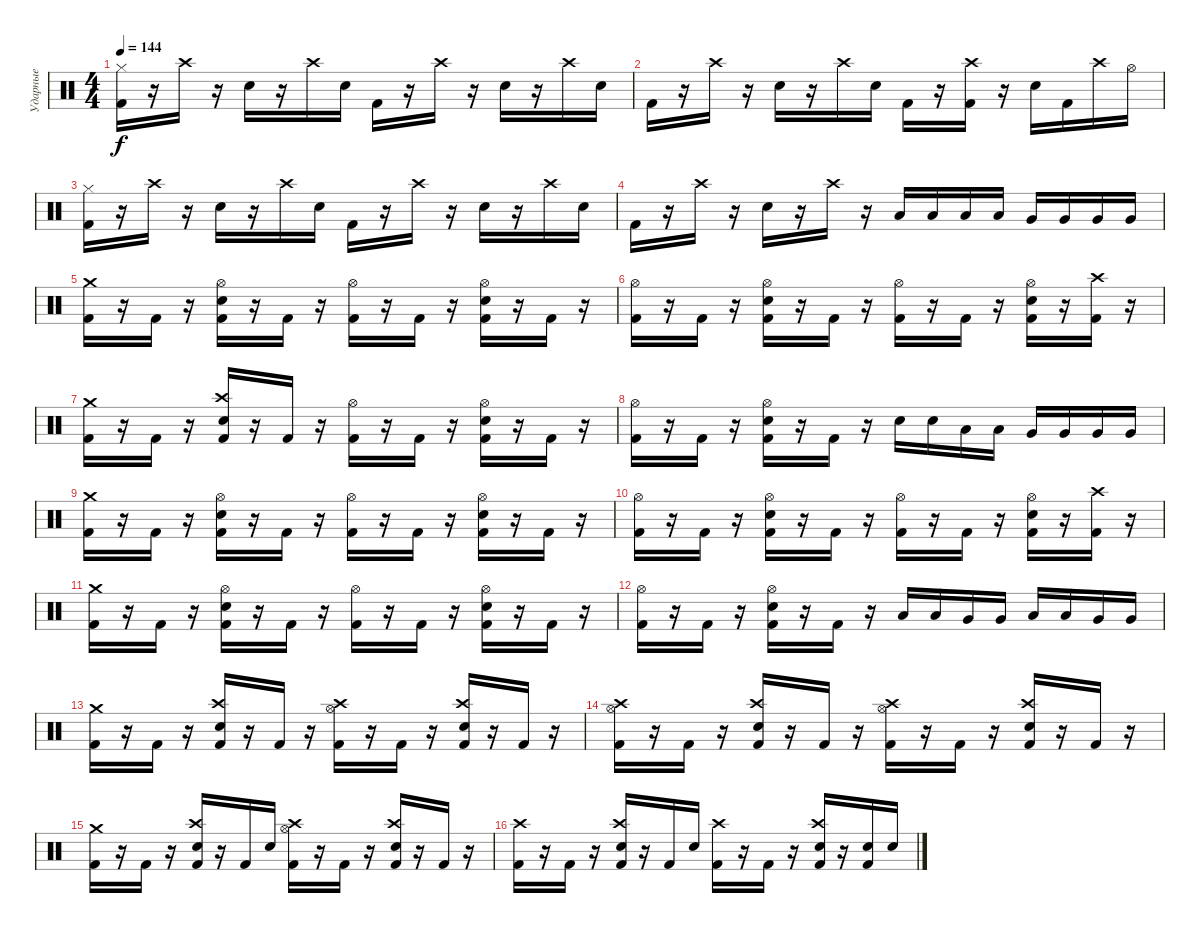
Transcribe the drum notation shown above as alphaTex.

\track ("Ударные" "Ударные") {instrument percussion}
\staff {score}
\articulation defaults
\ts (4 4)
\tempo 144
\clef neutral
\ks c
("Hi-Hat (closed)" "Kick (hit) 2").16{dy f} r.16 "Crash high (hit)".16 r.16 "Electric Snare (hit)".16 r.16 "Crash high (hit)".16 "Electric Snare (hit)".16 "Kick (hit) 2".16 r.16 "Crash high (hit)".16 r.16 "Electric Snare (hit)".16 r.16 "Crash high (hit)".16 "Electric Snare (hit)".16 |
"Kick (hit) 2".16 r.16 "Crash high (hit)".16 r.16 "Electric Snare (hit)".16 r.16 "Crash high (hit)".16 "Electric Snare (hit)".16 "Kick (hit) 2".16 r.16 ("Crash high (hit)" "Kick (hit) 2").16 r.16 "Electric Snare (hit)".16 "Kick (hit) 2".16 "Crash high (hit)".16 "Hi-Hat (open)".16 |
("Hi-Hat (closed)" "Kick (hit) 2").16 r.16 "Crash high (hit)".16 r.16 "Electric Snare (hit)".16 r.16 "Crash high (hit)".16 "Electric Snare (hit)".16 "Kick (hit) 2".16 r.16 "Crash high (hit)".16 r.16 "Electric Snare (hit)".16 r.16 "Crash high (hit)".16 "Electric Snare (hit)".16 |
"Kick (hit) 2".16 r.16 "Crash high (hit)".16 r.16 "Electric Snare (hit)".16 r.16 "Crash high (hit)".16 r.16 "Low Tom (hit)".16 "Low Tom (hit)".16 "Low Tom (hit)".16 "Low Tom (hit)".16 "Very Low Tom (hit)".16 "Very Low Tom (hit)".16 "Very Low Tom (hit)".16 "Very Low Tom (hit)".16 |
("Crash medium (hit)" "Kick (hit) 2").16 r.16 "Kick (hit) 2".16 r.16 ("Hi-Hat (open)" "Electric Snare (hit)" "Kick (hit) 2").16 r.16 "Kick (hit) 2".16 r.16 ("Hi-Hat (open)" "Kick (hit) 2").16 r.16 "Kick (hit) 2".16 r.16 ("Hi-Hat (open)" "Electric Snare (hit)" "Kick (hit) 2").16 r.16 "Kick (hit) 2".16 r.16 |
("Hi-Hat (open)" "Kick (hit) 2").16 r.16 "Kick (hit) 2".16 r.16 ("Hi-Hat (open)" "Electric Snare (hit)" "Kick (hit) 2").16 r.16 "Kick (hit) 2".16 r.16 ("Hi-Hat (open)" "Kick (hit) 2").16 r.16 "Kick (hit) 2".16 r.16 ("Hi-Hat (open)" "Electric Snare (hit)" "Kick (hit) 2").16 r.16 ("Crash high (hit)" "Kick (hit) 2").16 r.16 |
("Crash medium (hit)" "Kick (hit) 2").16 r.16 "Kick (hit) 2".16 r.16 ("Crash high (hit)" "Electric Snare (hit)" "Kick (hit) 2").16 r.16 "Kick (hit) 2".16 r.16 ("Hi-Hat (open)" "Kick (hit) 2").16 r.16 "Kick (hit) 2".16 r.16 ("Hi-Hat (open)" "Electric Snare (hit)" "Kick (hit) 2").16 r.16 "Kick (hit) 2".16 r.16 |
("Hi-Hat (open)" "Kick (hit) 2").16 r.16 "Kick (hit) 2".16 r.16 ("Hi-Hat (open)" "Electric Snare (hit)" "Kick (hit) 2").16 r.16 "Kick (hit) 2".16 r.16 "Electric Snare (hit)".16 "Electric Snare (hit)".16 "Low Tom (hit)".16 "Low Tom (hit)".16 "Very Low Tom (hit)".16 "Very Low Tom (hit)".16 "Very Low Tom (hit)".16 "Very Low Tom (hit)".16 |
("Crash medium (hit)" "Kick (hit) 2").16 r.16 "Kick (hit) 2".16 r.16 ("Hi-Hat (open)" "Electric Snare (hit)" "Kick (hit) 2").16 r.16 "Kick (hit) 2".16 r.16 ("Hi-Hat (open)" "Kick (hit) 2").16 r.16 "Kick (hit) 2".16 r.16 ("Hi-Hat (open)" "Electric Snare (hit)" "Kick (hit) 2").16 r.16 "Kick (hit) 2".16 r.16 |
("Hi-Hat (open)" "Kick (hit) 2").16 r.16 "Kick (hit) 2".16 r.16 ("Hi-Hat (open)" "Electric Snare (hit)" "Kick (hit) 2").16 r.16 "Kick (hit) 2".16 r.16 ("Hi-Hat (open)" "Kick (hit) 2").16 r.16 "Kick (hit) 2".16 r.16 ("Hi-Hat (open)" "Electric Snare (hit)" "Kick (hit) 2").16 r.16 ("Crash high (hit)" "Kick (hit) 2").16 r.16 |
("Crash medium (hit)" "Kick (hit) 2").16 r.16 "Kick (hit) 2".16 r.16 ("Hi-Hat (open)" "Electric Snare (hit)" "Kick (hit) 2").16 r.16 "Kick (hit) 2".16 r.16 ("Hi-Hat (open)" "Kick (hit) 2").16 r.16 "Kick (hit) 2".16 r.16 ("Hi-Hat (open)" "Electric Snare (hit)" "Kick (hit) 2").16 r.16 "Kick (hit) 2".16 r.16 |
("Hi-Hat (open)" "Kick (hit) 2").16 r.16 "Kick (hit) 2".16 r.16 ("Hi-Hat (open)" "Electric Snare (hit)" "Kick (hit) 2").16 r.16 "Kick (hit) 2".16 r.16 "Low Tom (hit)".16 "Low Tom (hit)".16 "Very Low Tom (hit)".16 "Very Low Tom (hit)".16 "Low Tom (hit)".16 "Low Tom (hit)".16 "Very Low Tom (hit)".16 "Very Low Tom (hit)".16 |
("Crash medium (hit)" "Kick (hit) 2").16 r.16 "Kick (hit) 2".16 r.16 ("Crash high (hit)" "Electric Snare (hit)" "Kick (hit) 2").16 r.16 "Kick (hit) 2".16 r.16 ("Crash high (hit)" "Hi-Hat (open)" "Kick (hit) 2").16 r.16 "Kick (hit) 2".16 r.16 ("Crash high (hit)" "Electric Snare (hit)" "Kick (hit) 2").16 r.16 "Kick (hit) 2".16 r.16 |
("Crash high (hit)" "Hi-Hat (open)" "Kick (hit) 2").16 r.16 "Kick (hit) 2".16 r.16 ("Crash high (hit)" "Electric Snare (hit)" "Kick (hit) 2").16 r.16 "Kick (hit) 2".16 r.16 ("Crash high (hit)" "Hi-Hat (open)" "Kick (hit) 2").16 r.16 "Kick (hit) 2".16 r.16 ("Crash high (hit)" "Electric Snare (hit)" "Kick (hit) 2").16 r.16 "Kick (hit) 2".16 r.16 |
("Crash medium (hit)" "Kick (hit) 2").16 r.16 "Kick (hit) 2".16 r.16 ("Crash high (hit)" "Electric Snare (hit)" "Kick (hit) 2").16 r.16 "Kick (hit) 2".16 "Electric Snare (hit)".16 ("Crash high (hit)" "Hi-Hat (open)" "Kick (hit) 2").16 r.16 "Kick (hit) 2".16 r.16 ("Crash high (hit)" "Electric Snare (hit)" "Kick (hit) 2").16 r.16 "Kick (hit) 2".16 r.16 |
("Crash high (hit)" "Kick (hit) 2").16 r.16 "Kick (hit) 2".16 r.16 ("Crash high (hit)" "Electric Snare (hit)" "Kick (hit) 2").16 r.16 "Kick (hit) 2".16 "Electric Snare (hit)".16 ("Crash high (hit)" "Kick (hit) 2").16 r.16 "Kick (hit) 2".16 r.16 ("Crash high (hit)" "Electric Snare (hit)" "Kick (hit) 2").16 r.16 ("Electric Snare (hit)" "Kick (hit) 2").16 "Electric Snare (hit)".16
